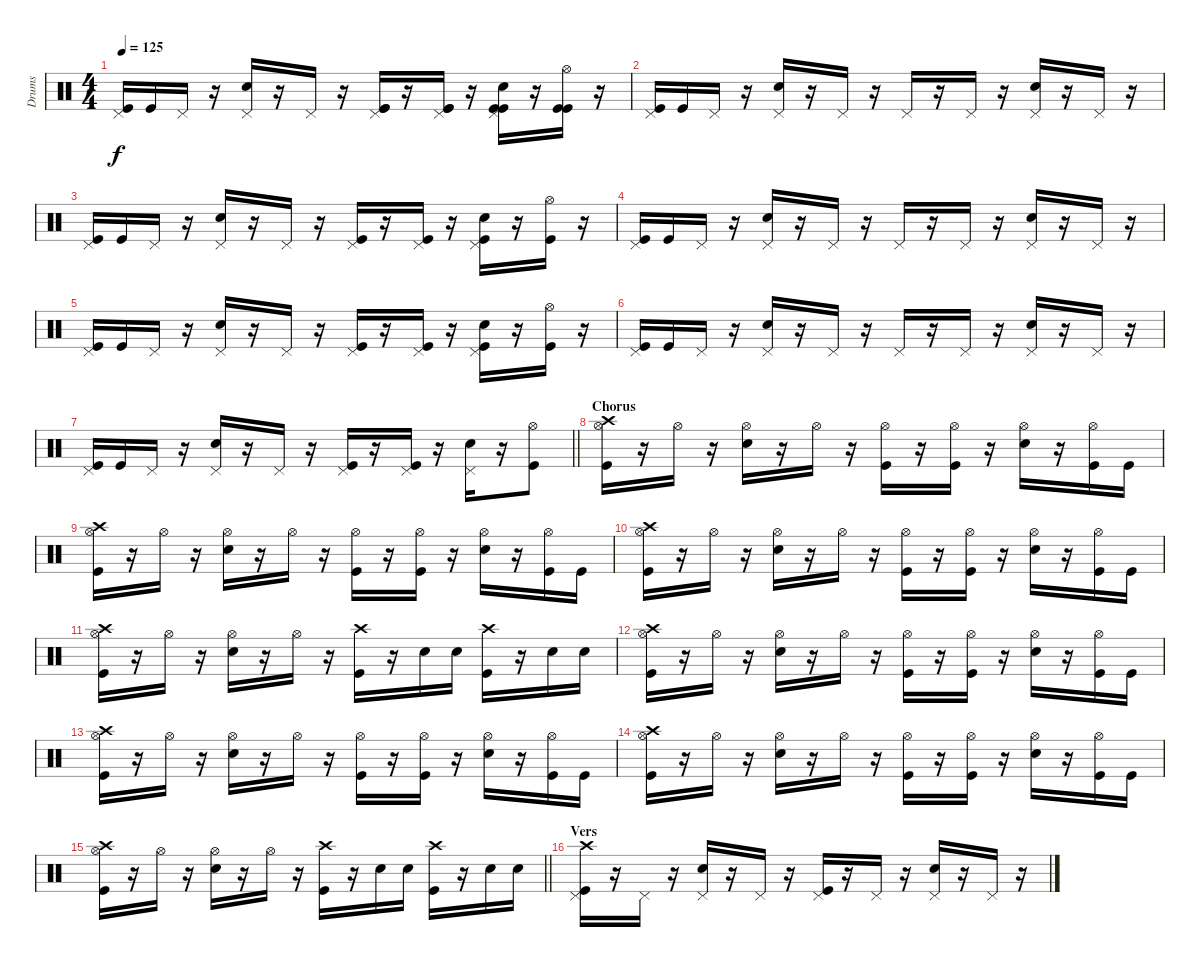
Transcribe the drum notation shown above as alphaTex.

\track ("Drums" "Drums") {instrument percussion}
\staff {score}
\articulation defaults
\ts (4 4)
\tempo 125
\clef neutral
\ks c
("Pedal Hi-Hat (hit)" "Kick (hit)").16{dy f} "Kick (hit)".16 "Pedal Hi-Hat (hit)".16 r.16 ("Pedal Hi-Hat (hit)" "Snare (hit) 2").16 r.16 "Pedal Hi-Hat (hit)".16 r.16 ("Pedal Hi-Hat (hit)" "Kick (hit)" "Kick (hit)").16 r.16 ("Pedal Hi-Hat (hit)" "Kick (hit)" "Kick (hit)").16 r.16 ("Pedal Hi-Hat (hit)" "Snare (hit) 2" "Kick (hit)" "Kick (hit)").16 r.16 ("Hi-Hat (open)" "Kick (hit)" "Kick (hit)").16 r.16 |
("Pedal Hi-Hat (hit)" "Kick (hit)").16 "Kick (hit)".16 "Pedal Hi-Hat (hit)".16 r.16 ("Pedal Hi-Hat (hit)" "Snare (hit) 2").16 r.16 "Pedal Hi-Hat (hit)".16 r.16 "Pedal Hi-Hat (hit)".16 r.16 "Pedal Hi-Hat (hit)".16 r.16 ("Pedal Hi-Hat (hit)" "Snare (hit) 2").16 r.16 "Pedal Hi-Hat (hit)".16 r.16 |
("Pedal Hi-Hat (hit)" "Kick (hit)").16 "Kick (hit)".16 "Pedal Hi-Hat (hit)".16 r.16 ("Pedal Hi-Hat (hit)" "Snare (hit) 2").16 r.16 "Pedal Hi-Hat (hit)".16 r.16 ("Pedal Hi-Hat (hit)" "Kick (hit)").16 r.16 ("Pedal Hi-Hat (hit)" "Kick (hit)").16 r.16 ("Pedal Hi-Hat (hit)" "Snare (hit) 2" "Kick (hit)").16 r.16 ("Hi-Hat (open)" "Kick (hit)").16 r.16 |
("Pedal Hi-Hat (hit)" "Kick (hit)").16 "Kick (hit)".16 "Pedal Hi-Hat (hit)".16 r.16 ("Pedal Hi-Hat (hit)" "Snare (hit) 2").16 r.16 "Pedal Hi-Hat (hit)".16 r.16 "Pedal Hi-Hat (hit)".16 r.16 "Pedal Hi-Hat (hit)".16 r.16 ("Pedal Hi-Hat (hit)" "Snare (hit) 2").16 r.16 "Pedal Hi-Hat (hit)".16 r.16 |
("Pedal Hi-Hat (hit)" "Kick (hit)").16 "Kick (hit)".16 "Pedal Hi-Hat (hit)".16 r.16 ("Pedal Hi-Hat (hit)" "Snare (hit) 2").16 r.16 "Pedal Hi-Hat (hit)".16 r.16 ("Pedal Hi-Hat (hit)" "Kick (hit)").16 r.16 ("Pedal Hi-Hat (hit)" "Kick (hit)").16 r.16 ("Pedal Hi-Hat (hit)" "Snare (hit) 2" "Kick (hit)").16 r.16 ("Hi-Hat (open)" "Kick (hit)").16 r.16 |
("Pedal Hi-Hat (hit)" "Kick (hit)").16 "Kick (hit)".16 "Pedal Hi-Hat (hit)".16 r.16 ("Pedal Hi-Hat (hit)" "Snare (hit) 2").16 r.16 "Pedal Hi-Hat (hit)".16 r.16 "Pedal Hi-Hat (hit)".16 r.16 "Pedal Hi-Hat (hit)".16 r.16 ("Pedal Hi-Hat (hit)" "Snare (hit) 2").16 r.16 "Pedal Hi-Hat (hit)".16 r.16 |
\barLineRight lightlight
("Pedal Hi-Hat (hit)" "Kick (hit)").16 "Kick (hit)".16 "Pedal Hi-Hat (hit)".16 r.16 ("Pedal Hi-Hat (hit)" "Snare (hit) 2").16 r.16 "Pedal Hi-Hat (hit)".16 r.16 ("Pedal Hi-Hat (hit)" "Kick (hit)").16 r.16 ("Pedal Hi-Hat (hit)" "Kick (hit)").16 r.16 ("Pedal Hi-Hat (hit)" "Snare (hit) 2").16 r.16 ("Hi-Hat (open)" "Kick (hit)").8 |
\section ("" "Chorus")
("Crash high (hit)" "Hi-Hat (open)" "Kick (hit)").16 r.16 "Hi-Hat (open)".16 r.16 ("Hi-Hat (open)" "Snare (hit) 2").16 r.16 "Hi-Hat (open)".16 r.16 ("Hi-Hat (open)" "Kick (hit)").16 r.16 ("Hi-Hat (open)" "Kick (hit)").16 r.16 ("Hi-Hat (open)" "Snare (hit) 2").16 r.16 ("Hi-Hat (open)" "Kick (hit)").16 "Kick (hit)".16 |
("Crash high (hit)" "Hi-Hat (open)" "Kick (hit)").16 r.16 "Hi-Hat (open)".16 r.16 ("Hi-Hat (open)" "Snare (hit) 2").16 r.16 "Hi-Hat (open)".16 r.16 ("Hi-Hat (open)" "Kick (hit)").16 r.16 ("Hi-Hat (open)" "Kick (hit)").16 r.16 ("Hi-Hat (open)" "Snare (hit) 2").16 r.16 ("Hi-Hat (open)" "Kick (hit)").16 "Kick (hit)".16 |
("Crash high (hit)" "Hi-Hat (open)" "Kick (hit)").16 r.16 "Hi-Hat (open)".16 r.16 ("Hi-Hat (open)" "Snare (hit) 2").16 r.16 "Hi-Hat (open)".16 r.16 ("Hi-Hat (open)" "Kick (hit)").16 r.16 ("Hi-Hat (open)" "Kick (hit)").16 r.16 ("Hi-Hat (open)" "Snare (hit) 2").16 r.16 ("Hi-Hat (open)" "Kick (hit)").16 "Kick (hit)".16 |
("Crash high (hit)" "Hi-Hat (open)" "Kick (hit)").16 r.16 "Hi-Hat (open)".16 r.16 ("Hi-Hat (open)" "Snare (hit) 2").16 r.16 "Hi-Hat (open)".16 r.16 ("Crash high (hit)" "Kick (hit)").16 r.16 "Snare (hit) 2".16 "Snare (hit) 2".16 ("Crash high (hit)" "Kick (hit)").16 r.16 "Snare (hit) 2".16 "Snare (hit) 2".16 |
("Crash high (hit)" "Hi-Hat (open)" "Kick (hit)").16 r.16 "Hi-Hat (open)".16 r.16 ("Hi-Hat (open)" "Snare (hit) 2").16 r.16 "Hi-Hat (open)".16 r.16 ("Hi-Hat (open)" "Kick (hit)").16 r.16 ("Hi-Hat (open)" "Kick (hit)").16 r.16 ("Hi-Hat (open)" "Snare (hit) 2").16 r.16 ("Hi-Hat (open)" "Kick (hit)").16 "Kick (hit)".16 |
("Crash high (hit)" "Hi-Hat (open)" "Kick (hit)").16 r.16 "Hi-Hat (open)".16 r.16 ("Hi-Hat (open)" "Snare (hit) 2").16 r.16 "Hi-Hat (open)".16 r.16 ("Hi-Hat (open)" "Kick (hit)").16 r.16 ("Hi-Hat (open)" "Kick (hit)").16 r.16 ("Hi-Hat (open)" "Snare (hit) 2").16 r.16 ("Hi-Hat (open)" "Kick (hit)").16 "Kick (hit)".16 |
("Crash high (hit)" "Hi-Hat (open)" "Kick (hit)").16 r.16 "Hi-Hat (open)".16 r.16 ("Hi-Hat (open)" "Snare (hit) 2").16 r.16 "Hi-Hat (open)".16 r.16 ("Hi-Hat (open)" "Kick (hit)").16 r.16 ("Hi-Hat (open)" "Kick (hit)").16 r.16 ("Hi-Hat (open)" "Snare (hit) 2").16 r.16 ("Hi-Hat (open)" "Kick (hit)").16 "Kick (hit)".16 |
\barLineRight lightlight
("Crash high (hit)" "Hi-Hat (open)" "Kick (hit)").16 r.16 "Hi-Hat (open)".16 r.16 ("Hi-Hat (open)" "Snare (hit) 2").16 r.16 "Hi-Hat (open)".16 r.16 ("Crash high (hit)" "Kick (hit)").16 r.16 "Snare (hit) 2".16 "Snare (hit) 2".16 ("Crash high (hit)" "Kick (hit)").16 r.16 "Snare (hit) 2".16 "Snare (hit) 2".16 |
\section ("" "Vers")
("Crash high (hit)" "Pedal Hi-Hat (hit)" "Kick (hit)").16 r.16 "Pedal Hi-Hat (hit)".16 r.16 ("Pedal Hi-Hat (hit)" "Snare (hit) 2").16 r.16 "Pedal Hi-Hat (hit)".16 r.16 ("Pedal Hi-Hat (hit)" "Kick (hit)").16 r.16 "Pedal Hi-Hat (hit)".16 r.16 ("Pedal Hi-Hat (hit)" "Snare (hit) 2").16 r.16 "Pedal Hi-Hat (hit)".16 r.16
